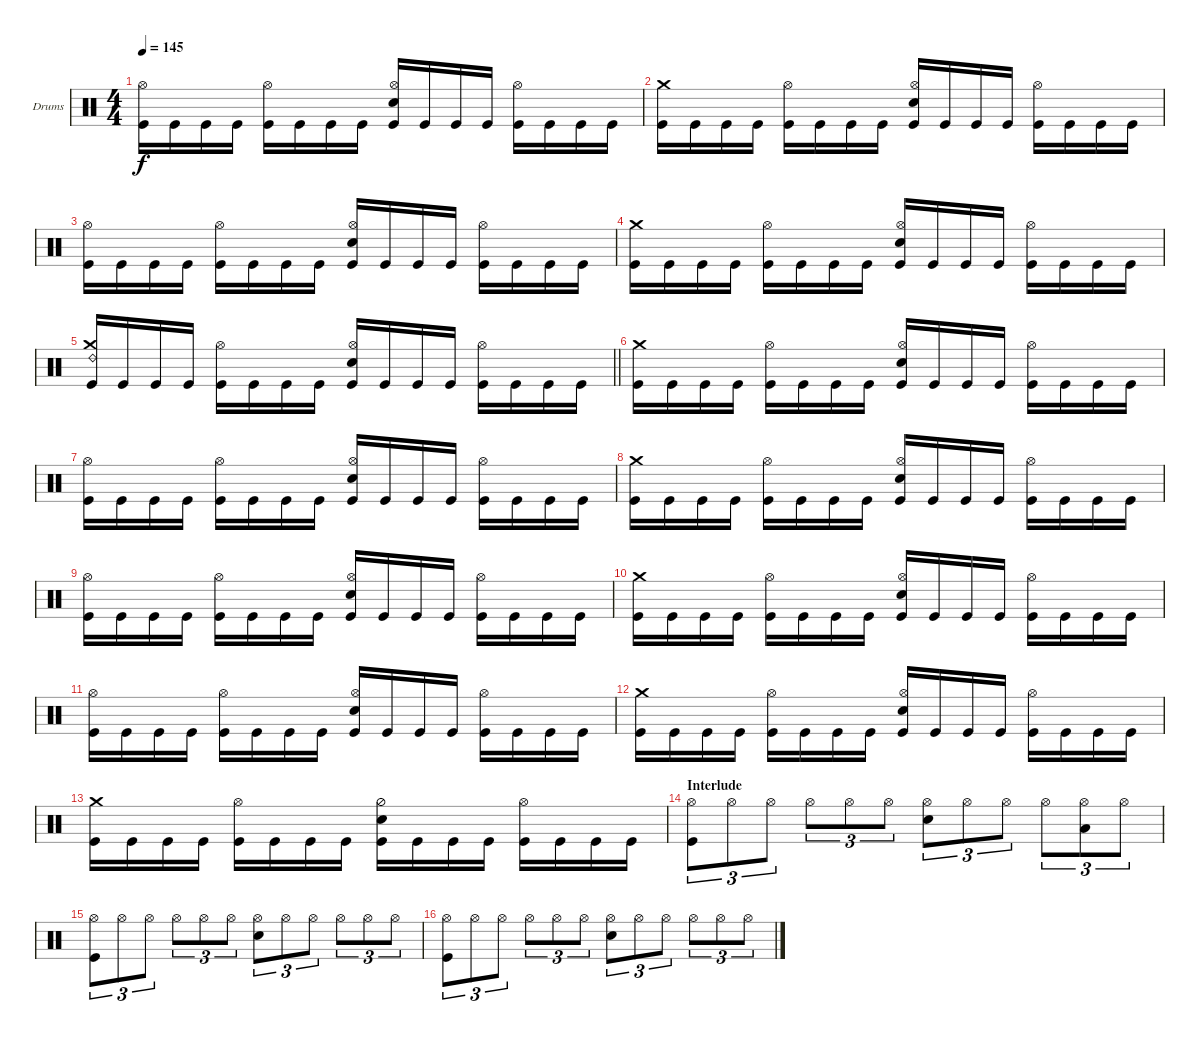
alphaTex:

\defaultSystemsLayout 4
\bracketExtendMode groupsimilarinstruments
\firstSystemTrackNameOrientation horizontal
\otherSystemsTrackNameOrientation horizontal
\track ("Drums" "Drums") {instrument percussion}
\staff {score}
\articulation defaults
\ts (4 4)
\tempo 145
\clef neutral
\ks c
("Kick (hit)" "Hi-Hat (open)").16{dy f} "Kick (hit)".16 "Kick (hit)".16 "Kick (hit)".16 ("Kick (hit)" "Hi-Hat (open)").16 "Kick (hit)".16 "Kick (hit)".16 "Kick (hit)".16 ("Snare (hit) 2" "Hi-Hat (open)" "Kick (hit)").16 "Kick (hit)".16 "Kick (hit)".16 "Kick (hit)".16 ("Kick (hit)" "Hi-Hat (open)").16 "Kick (hit)".16 "Kick (hit)".16 "Kick (hit)".16 |
("Kick (hit)" "Crash medium (hit)").16 "Kick (hit)".16 "Kick (hit)".16 "Kick (hit)".16 ("Kick (hit)" "Hi-Hat (open)").16 "Kick (hit)".16 "Kick (hit)".16 "Kick (hit)".16 ("Snare (hit) 2" "Hi-Hat (open)" "Kick (hit)").16 "Kick (hit)".16 "Kick (hit)".16 "Kick (hit)".16 ("Kick (hit)" "Hi-Hat (open)").16 "Kick (hit)".16 "Kick (hit)".16 "Kick (hit)".16 |
("Kick (hit)" "Hi-Hat (open)").16 "Kick (hit)".16 "Kick (hit)".16 "Kick (hit)".16 ("Kick (hit)" "Hi-Hat (open)").16 "Kick (hit)".16 "Kick (hit)".16 "Kick (hit)".16 ("Snare (hit) 2" "Hi-Hat (open)" "Kick (hit)").16 "Kick (hit)".16 "Kick (hit)".16 "Kick (hit)".16 ("Kick (hit)" "Hi-Hat (open)").16 "Kick (hit)".16 "Kick (hit)".16 "Kick (hit)".16 |
("Kick (hit)" "Crash medium (hit)").16 "Kick (hit)".16 "Kick (hit)".16 "Kick (hit)".16 ("Kick (hit)" "Hi-Hat (open)").16 "Kick (hit)".16 "Kick (hit)".16 "Kick (hit)".16 ("Snare (hit) 2" "Hi-Hat (open)" "Kick (hit)").16 "Kick (hit)".16 "Kick (hit)".16 "Kick (hit)".16 ("Kick (hit)" "Hi-Hat (open)").16 "Kick (hit)".16 "Kick (hit)".16 "Kick (hit)".16 |
\barLineRight lightlight
("Kick (hit)" "Ride (bell) 2" "Crash medium (hit)").16 "Kick (hit)".16 "Kick (hit)".16 "Kick (hit)".16 ("Kick (hit)" "Hi-Hat (open)").16 "Kick (hit)".16 "Kick (hit)".16 "Kick (hit)".16 ("Snare (hit) 2" "Hi-Hat (open)" "Kick (hit)").16 "Kick (hit)".16 "Kick (hit)".16 "Kick (hit)".16 ("Kick (hit)" "Hi-Hat (open)").16 "Kick (hit)".16 "Kick (hit)".16 "Kick (hit)".16 |
("Kick (hit)" "Crash medium (hit)").16 "Kick (hit)".16 "Kick (hit)".16 "Kick (hit)".16 ("Kick (hit)" "Hi-Hat (open)").16 "Kick (hit)".16 "Kick (hit)".16 "Kick (hit)".16 ("Snare (hit) 2" "Hi-Hat (open)" "Kick (hit)").16 "Kick (hit)".16 "Kick (hit)".16 "Kick (hit)".16 ("Kick (hit)" "Hi-Hat (open)").16 "Kick (hit)".16 "Kick (hit)".16 "Kick (hit)".16 |
("Kick (hit)" "Hi-Hat (open)").16 "Kick (hit)".16 "Kick (hit)".16 "Kick (hit)".16 ("Kick (hit)" "Hi-Hat (open)").16 "Kick (hit)".16 "Kick (hit)".16 "Kick (hit)".16 ("Snare (hit) 2" "Hi-Hat (open)" "Kick (hit)").16 "Kick (hit)".16 "Kick (hit)".16 "Kick (hit)".16 ("Kick (hit)" "Hi-Hat (open)").16 "Kick (hit)".16 "Kick (hit)".16 "Kick (hit)".16 |
("Kick (hit)" "Crash medium (hit)").16 "Kick (hit)".16 "Kick (hit)".16 "Kick (hit)".16 ("Kick (hit)" "Hi-Hat (open)").16 "Kick (hit)".16 "Kick (hit)".16 "Kick (hit)".16 ("Snare (hit) 2" "Hi-Hat (open)" "Kick (hit)").16 "Kick (hit)".16 "Kick (hit)".16 "Kick (hit)".16 ("Kick (hit)" "Hi-Hat (open)").16 "Kick (hit)".16 "Kick (hit)".16 "Kick (hit)".16 |
("Kick (hit)" "Hi-Hat (open)").16 "Kick (hit)".16 "Kick (hit)".16 "Kick (hit)".16 ("Kick (hit)" "Hi-Hat (open)").16 "Kick (hit)".16 "Kick (hit)".16 "Kick (hit)".16 ("Snare (hit) 2" "Hi-Hat (open)" "Kick (hit)").16 "Kick (hit)".16 "Kick (hit)".16 "Kick (hit)".16 ("Kick (hit)" "Hi-Hat (open)").16 "Kick (hit)".16 "Kick (hit)".16 "Kick (hit)".16 |
("Kick (hit)" "Crash medium (hit)").16 "Kick (hit)".16 "Kick (hit)".16 "Kick (hit)".16 ("Kick (hit)" "Hi-Hat (open)").16 "Kick (hit)".16 "Kick (hit)".16 "Kick (hit)".16 ("Snare (hit) 2" "Hi-Hat (open)" "Kick (hit)").16 "Kick (hit)".16 "Kick (hit)".16 "Kick (hit)".16 ("Kick (hit)" "Hi-Hat (open)").16 "Kick (hit)".16 "Kick (hit)".16 "Kick (hit)".16 |
("Kick (hit)" "Hi-Hat (open)").16 "Kick (hit)".16 "Kick (hit)".16 "Kick (hit)".16 ("Kick (hit)" "Hi-Hat (open)").16 "Kick (hit)".16 "Kick (hit)".16 "Kick (hit)".16 ("Snare (hit) 2" "Hi-Hat (open)" "Kick (hit)").16 "Kick (hit)".16 "Kick (hit)".16 "Kick (hit)".16 ("Kick (hit)" "Hi-Hat (open)").16 "Kick (hit)".16 "Kick (hit)".16 "Kick (hit)".16 |
("Kick (hit)" "Crash medium (hit)").16 "Kick (hit)".16 "Kick (hit)".16 "Kick (hit)".16 ("Kick (hit)" "Hi-Hat (open)").16 "Kick (hit)".16 "Kick (hit)".16 "Kick (hit)".16 ("Snare (hit) 2" "Hi-Hat (open)" "Kick (hit)").16 "Kick (hit)".16 "Kick (hit)".16 "Kick (hit)".16 ("Kick (hit)" "Hi-Hat (open)").16 "Kick (hit)".16 "Kick (hit)".16 "Kick (hit)".16 |
("Kick (hit)" "Crash medium (hit)").16 "Kick (hit)".16 "Kick (hit)".16 "Kick (hit)".16 ("Kick (hit)" "Hi-Hat (open)").16 "Kick (hit)".16 "Kick (hit)".16 "Kick (hit)".16 ("Snare (hit) 2" "Hi-Hat (half)" "Kick (hit)").16 "Kick (hit)".16 "Kick (hit)".16 "Kick (hit)".16 ("Kick (hit)" "Hi-Hat (open)").16 "Kick (hit)".16 "Kick (hit)".16 "Kick (hit)".16 |
\section ("" "Interlude")
("Kick (hit)" "Hi-Hat (open)").8{tu (3 2)} "Hi-Hat (open)".8{tu (3 2)} "Hi-Hat (open)".8{tu (3 2)} "Hi-Hat (open)".8{tu (3 2)} "Hi-Hat (open)".8{tu (3 2)} "Hi-Hat (open)".8{tu (3 2)} ("Snare (hit) 2" "Hi-Hat (open)").8{tu (3 2)} "Hi-Hat (open)".8{tu (3 2)} "Hi-Hat (open)".8{tu (3 2)} "Hi-Hat (open)".8{tu (3 2)} ("Hi-Hat (open)" "Low Tom (hit)").8{tu (3 2)} "Hi-Hat (open)".8{tu (3 2)} |
("Kick (hit)" "Hi-Hat (open)").8{tu (3 2)} "Hi-Hat (open)".8{tu (3 2)} "Hi-Hat (open)".8{tu (3 2)} "Hi-Hat (open)".8{tu (3 2)} "Hi-Hat (open)".8{tu (3 2)} "Hi-Hat (open)".8{tu (3 2)} ("Snare (hit) 2" "Hi-Hat (open)").8{tu (3 2)} "Hi-Hat (open)".8{tu (3 2)} "Hi-Hat (open)".8{tu (3 2)} "Hi-Hat (open)".8{tu (3 2)} "Hi-Hat (open)".8{tu (3 2)} "Hi-Hat (open)".8{tu (3 2)} |
("Kick (hit)" "Hi-Hat (open)").8{tu (3 2)} "Hi-Hat (open)".8{tu (3 2)} "Hi-Hat (open)".8{tu (3 2)} "Hi-Hat (open)".8{tu (3 2)} "Hi-Hat (open)".8{tu (3 2)} "Hi-Hat (open)".8{tu (3 2)} ("Snare (hit) 2" "Hi-Hat (open)").8{tu (3 2)} "Hi-Hat (open)".8{tu (3 2)} "Hi-Hat (open)".8{tu (3 2)} "Hi-Hat (open)".8{tu (3 2)} "Hi-Hat (open)".8{tu (3 2)} "Hi-Hat (open)".8{tu (3 2)}
